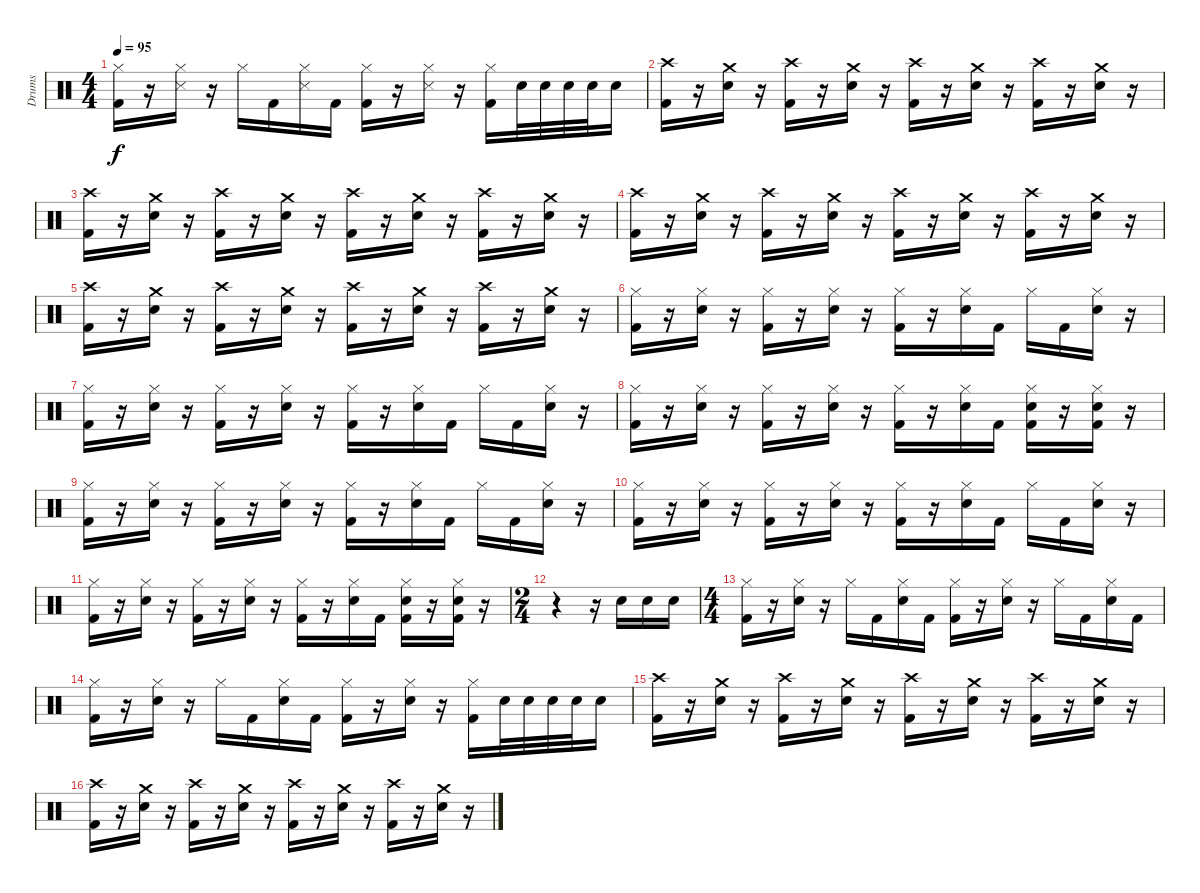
\track ("Drums" "Drums") {instrument percussion}
\staff {score}
\articulation defaults
\ts (4 4)
\tempo 95
\clef neutral
\ks c
("Hi-Hat (closed)" "Kick (hit) 2").16{dy f} r.16 ("Hi-Hat (closed)" "Snare (side stick) 3").16 r.16 "Hi-Hat (closed)".16 "Kick (hit) 2".16 ("Hi-Hat (closed)" "Snare (side stick) 3").16 "Kick (hit) 2".16 ("Hi-Hat (closed)" "Kick (hit) 2").16 r.16 ("Hi-Hat (closed)" "Snare (side stick) 3").16 r.16 ("Hi-Hat (closed)" "Kick (hit) 2").16 "Snare (hit) 2".32 "Snare (hit) 2".32 "Snare (hit) 2".32 "Snare (hit) 2".32 "Snare (hit) 2".16 |
("Crash high (hit)" "Kick (hit) 2").16 r.16 ("Crash medium (hit)" "Snare (hit) 2").16 r.16 ("Crash high (hit)" "Kick (hit) 2").16 r.16 ("Crash medium (hit)" "Snare (hit) 2").16 r.16 ("Crash high (hit)" "Kick (hit) 2").16 r.16 ("Crash medium (hit)" "Snare (hit) 2").16 r.16 ("Crash high (hit)" "Kick (hit) 2").16 r.16 ("Crash medium (hit)" "Snare (hit) 2").16 r.16 |
("Crash high (hit)" "Kick (hit) 2").16 r.16 ("Crash medium (hit)" "Snare (hit) 2").16 r.16 ("Crash high (hit)" "Kick (hit) 2").16 r.16 ("Crash medium (hit)" "Snare (hit) 2").16 r.16 ("Crash high (hit)" "Kick (hit) 2").16 r.16 ("Crash medium (hit)" "Snare (hit) 2").16 r.16 ("Crash high (hit)" "Kick (hit) 2").16 r.16 ("Crash medium (hit)" "Snare (hit) 2").16 r.16 |
("Crash high (hit)" "Kick (hit) 2").16 r.16 ("Crash medium (hit)" "Snare (hit) 2").16 r.16 ("Crash high (hit)" "Kick (hit) 2").16 r.16 ("Crash medium (hit)" "Snare (hit) 2").16 r.16 ("Crash high (hit)" "Kick (hit) 2").16 r.16 ("Crash medium (hit)" "Snare (hit) 2").16 r.16 ("Crash high (hit)" "Kick (hit) 2").16 r.16 ("Crash medium (hit)" "Snare (hit) 2").16 r.16 |
("Crash high (hit)" "Kick (hit) 2").16 r.16 ("Crash medium (hit)" "Snare (hit) 2").16 r.16 ("Crash high (hit)" "Kick (hit) 2").16 r.16 ("Crash medium (hit)" "Snare (hit) 2").16 r.16 ("Crash high (hit)" "Kick (hit) 2").16 r.16 ("Crash medium (hit)" "Snare (hit) 2").16 r.16 ("Crash high (hit)" "Kick (hit) 2").16 r.16 ("Crash medium (hit)" "Snare (hit) 2").16 r.16 |
("Hi-Hat (closed)" "Kick (hit) 2").16 r.16 ("Hi-Hat (closed)" "Snare (hit) 2").16 r.16 ("Hi-Hat (closed)" "Kick (hit) 2").16 r.16 ("Hi-Hat (closed)" "Snare (hit) 2").16 r.16 ("Hi-Hat (closed)" "Kick (hit) 2").16 r.16 ("Hi-Hat (closed)" "Snare (hit) 2").16 "Kick (hit) 2".16 "Hi-Hat (closed)".16 "Kick (hit) 2".16 ("Hi-Hat (closed)" "Snare (hit) 2").16 r.16 |
("Hi-Hat (closed)" "Kick (hit) 2").16 r.16 ("Hi-Hat (closed)" "Snare (hit) 2").16 r.16 ("Hi-Hat (closed)" "Kick (hit) 2").16 r.16 ("Hi-Hat (closed)" "Snare (hit) 2").16 r.16 ("Hi-Hat (closed)" "Kick (hit) 2").16 r.16 ("Hi-Hat (closed)" "Snare (hit) 2").16 "Kick (hit) 2".16 "Hi-Hat (closed)".16 "Kick (hit) 2".16 ("Hi-Hat (closed)" "Snare (hit) 2").16 r.16 |
("Hi-Hat (closed)" "Kick (hit) 2").16 r.16 ("Hi-Hat (closed)" "Snare (hit) 2").16 r.16 ("Hi-Hat (closed)" "Kick (hit) 2").16 r.16 ("Hi-Hat (closed)" "Snare (hit) 2").16 r.16 ("Hi-Hat (closed)" "Kick (hit) 2").16 r.16 ("Hi-Hat (closed)" "Snare (hit) 2").16 "Kick (hit) 2".16 ("Hi-Hat (closed)" "Snare (hit) 2" "Kick (hit) 2").16 r.16 ("Hi-Hat (closed)" "Snare (hit) 2" "Kick (hit) 2").16 r.16 |
("Hi-Hat (closed)" "Kick (hit) 2").16 r.16 ("Hi-Hat (closed)" "Snare (hit) 2").16 r.16 ("Hi-Hat (closed)" "Kick (hit) 2").16 r.16 ("Hi-Hat (closed)" "Snare (hit) 2").16 r.16 ("Hi-Hat (closed)" "Kick (hit) 2").16 r.16 ("Hi-Hat (closed)" "Snare (hit) 2").16 "Kick (hit) 2".16 "Hi-Hat (closed)".16 "Kick (hit) 2".16 ("Hi-Hat (closed)" "Snare (hit) 2").16 r.16 |
("Hi-Hat (closed)" "Kick (hit) 2").16 r.16 ("Hi-Hat (closed)" "Snare (hit) 2").16 r.16 ("Hi-Hat (closed)" "Kick (hit) 2").16 r.16 ("Hi-Hat (closed)" "Snare (hit) 2").16 r.16 ("Hi-Hat (closed)" "Kick (hit) 2").16 r.16 ("Hi-Hat (closed)" "Snare (hit) 2").16 "Kick (hit) 2".16 "Hi-Hat (closed)".16 "Kick (hit) 2".16 ("Hi-Hat (closed)" "Snare (hit) 2").16 r.16 |
("Hi-Hat (closed)" "Kick (hit) 2").16 r.16 ("Hi-Hat (closed)" "Snare (hit) 2").16 r.16 ("Hi-Hat (closed)" "Kick (hit) 2").16 r.16 ("Hi-Hat (closed)" "Snare (hit) 2").16 r.16 ("Hi-Hat (closed)" "Kick (hit) 2").16 r.16 ("Hi-Hat (closed)" "Snare (hit) 2").16 "Kick (hit) 2".16 ("Hi-Hat (closed)" "Snare (hit) 2" "Kick (hit) 2").16 r.16 ("Hi-Hat (closed)" "Snare (hit) 2" "Kick (hit) 2").16 r.16 |
\ts (2 4)
r.4 r.16 "Snare (hit) 2".16 "Snare (hit) 2".16 "Snare (hit) 2".16 |
\ts (4 4)
("Hi-Hat (closed)" "Kick (hit) 2").16 r.16 ("Hi-Hat (closed)" "Snare (hit) 2").16 r.16 "Hi-Hat (closed)".16 "Kick (hit) 2".16 ("Hi-Hat (closed)" "Snare (hit) 2").16 "Kick (hit) 2".16 ("Hi-Hat (closed)" "Kick (hit) 2").16 r.16 ("Hi-Hat (closed)" "Snare (hit) 2").16 r.16 "Hi-Hat (closed)".16 "Kick (hit) 2".16 ("Hi-Hat (closed)" "Snare (hit) 2").16 "Kick (hit) 2".16 |
("Hi-Hat (closed)" "Kick (hit) 2").16 r.16 ("Hi-Hat (closed)" "Snare (hit) 2").16 r.16 "Hi-Hat (closed)".16 "Kick (hit) 2".16 ("Hi-Hat (closed)" "Snare (hit) 2").16 "Kick (hit) 2".16 ("Hi-Hat (closed)" "Kick (hit) 2").16 r.16 ("Hi-Hat (closed)" "Snare (hit) 2").16 r.16 ("Hi-Hat (closed)" "Kick (hit) 2").16 "Snare (hit) 2".32 "Snare (hit) 2".32 "Snare (hit) 2".32 "Snare (hit) 2".32 "Snare (hit) 2".16 |
("Crash high (hit)" "Kick (hit) 2").16 r.16 ("Crash medium (hit)" "Snare (hit) 2").16 r.16 ("Crash high (hit)" "Kick (hit) 2").16 r.16 ("Crash medium (hit)" "Snare (hit) 2").16 r.16 ("Crash high (hit)" "Kick (hit) 2").16 r.16 ("Crash medium (hit)" "Snare (hit) 2").16 r.16 ("Crash high (hit)" "Kick (hit) 2").16 r.16 ("Crash medium (hit)" "Snare (hit) 2").16 r.16 |
("Crash high (hit)" "Kick (hit) 2").16 r.16 ("Crash medium (hit)" "Snare (hit) 2").16 r.16 ("Crash high (hit)" "Kick (hit) 2").16 r.16 ("Crash medium (hit)" "Snare (hit) 2").16 r.16 ("Crash high (hit)" "Kick (hit) 2").16 r.16 ("Crash medium (hit)" "Snare (hit) 2").16 r.16 ("Crash high (hit)" "Kick (hit) 2").16 r.16 ("Crash medium (hit)" "Snare (hit) 2").16 r.16
